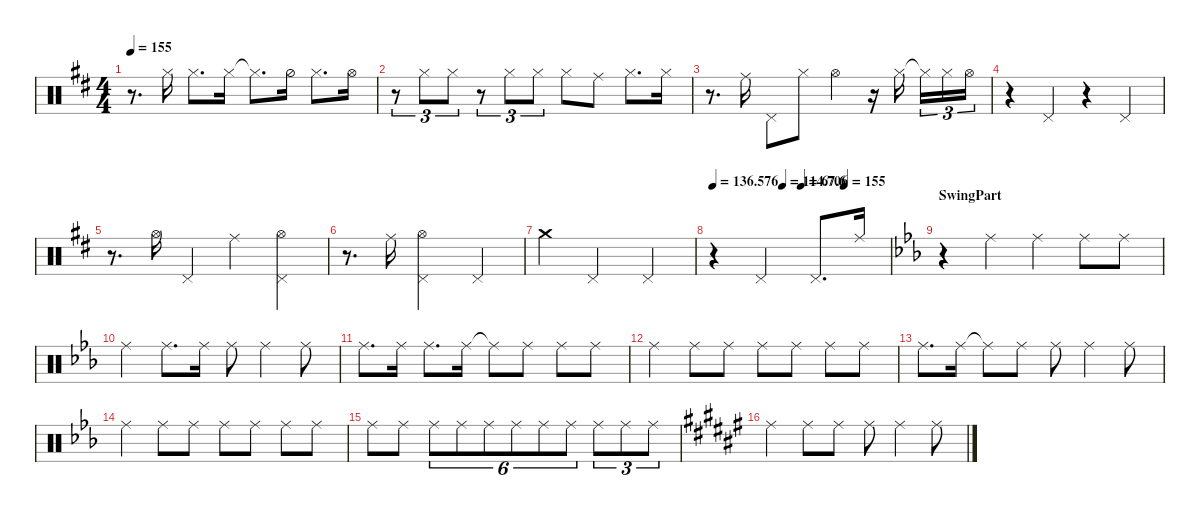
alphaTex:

\hideDynamics
\bracketExtendMode nobrackets
\singleTrackTrackNamePolicy hidden
\multiTrackTrackNamePolicy hidden
\otherSystemsTrackNameOrientation horizontal
\track ("Perc" "Drums") {instrument percussion}
\staff {score}
\articulation defaults
\ts (4 4)
\tempo 155
\clef neutral
\ks d
r.8{d dy mp beam Down} "Hi-Hat (closed)"{acc forcenatural}.16{dy p beam Down} "Hi-Hat (closed)"{acc forcenatural}.8{d dy mp beam Down} "Hi-Hat (closed)"{acc forcenatural}.16{dy p beam Down} "Hi-Hat (closed)"{t acc forcenatural}.8{d dy mp beam Down} "Hi-Hat (half)"{acc forcenatural}.16{dy p beam Down} "Hi-Hat (closed)"{acc forcenatural}.8{d beam Down} "Hi-Hat (open)"{acc forcenatural}.16{dy mp beam Down} |
r.8{tu (3 2) beam Down} "Hi-Hat (closed)"{acc forcenatural}.8{tu (3 2) beam Down} "Hi-Hat (closed)"{acc forcenatural}.8{tu (3 2) beam Down} r.8{tu (3 2) beam Down} "Hi-Hat (closed)"{acc forcenatural}.8{tu (3 2) beam Down} "Hi-Hat (closed)"{acc forcenatural}.8{tu (3 2) beam Down} "Hi-Hat (closed)"{acc forcenatural}.8{beam Down} "Ride (middle)"{acc forcenatural}.8{dy mf beam Down} "Hi-Hat (closed)"{acc forcenatural}.8{d dy mp beam Down} "Hi-Hat (closed)"{acc forcenatural}.16{dy p beam Down} |
r.8{d beam Down} "Ride (middle)"{acc forcenatural}.16{dy mf beam Down} "Pedal Hi-Hat (hit)"{acc forcenatural}.8{dy mp beam Down} "Hi-Hat (closed)"{acc forcenatural}.8{beam Down} "Hi-Hat (open)"{acc forcenatural}.4{dy mf beam Down} r.16{beam Down} "Hi-Hat (closed)"{acc forcenatural}.16{beam Down} "Hi-Hat (closed)"{t acc forcenatural}.16{tu (3 2) beam Down} "Hi-Hat (closed)"{acc forcenatural}.16{tu (3 2) beam Down} "Hi-Hat (open)"{acc forcenatural}.16{tu (3 2) beam Down} |
r.4{beam Down} "Pedal Hi-Hat (hit)"{acc forcenatural}.4{dy mp beam Up} r.4{beam Up} "Pedal Hi-Hat (hit)"{acc forcenatural}.4{beam Up} |
r.8{d beam Down} "Hi-Hat (open)"{acc forcenatural}.16{dy p beam Down} "Pedal Hi-Hat (hit)"{acc forcenatural}.4{dy mp beam Up} "Ride (middle)"{acc forcenatural}.4{dy p beam Down} ("Pedal Hi-Hat (hit)"{acc forcenatural} "Hi-Hat (open)"{acc forcenatural}).4{beam Down} |
r.8{d beam Down} "Ride (middle)"{acc forcenatural}.16{dy mf beam Down} ("Hi-Hat (open)"{acc forcenatural} "Pedal Hi-Hat (hit)"{acc forcenatural}).2{dy mp beam Down} "Pedal Hi-Hat (hit)"{acc forcenatural}.4{beam Up} |
"Crash medium (hit)"{acc forcenatural}.4{dy mf beam Down} "Pedal Hi-Hat (hit)"{acc forcenatural}.2{dy mp beam Up} "Pedal Hi-Hat (hit)"{acc forcenatural}.4{beam Up} |
\tempo
136.576
\tempo (114.706 0.39375)
\tempo (67.6 0.5)
\tempo (155 0.74375)
r.4{beam Down} "Pedal Hi-Hat (hit)"{acc forcenatural}.2{beam Up} "Pedal Hi-Hat (hit)"{acc forcenatural}.8{d beam Up} "Ride (middle)"{acc forcenatural}.16{dy mf beam Up} |
\section ("" "SwingPart")
\ks eb
r.4{beam Down} "Ride (middle)"{acc forcenatural}.4{dy pp beam Down} "Ride (middle)"{acc forcenatural}.4{beam Down} "Ride (middle)"{acc forcenatural}.8{beam Down} "Ride (middle)"{acc forcenatural}.8{beam Down} |
"Ride (middle)"{acc forcenatural}.4{beam Down} "Ride (middle)"{acc forcenatural}.8{d beam Down} "Ride (middle)"{acc forcenatural}.16{beam Down} "Ride (middle)"{acc forcenatural}.8{beam Down} "Ride (middle)"{acc forcenatural}.4{beam Down} "Ride (middle)"{acc forcenatural}.8{beam Down} |
"Ride (middle)"{acc forcenatural}.8{d beam Down} "Ride (middle)"{acc forcenatural}.16{beam Down} "Ride (middle)"{acc forcenatural}.8{d beam Down} "Ride (middle)"{acc forcenatural}.16{beam Down} "Ride (middle)"{t acc forcenatural}.8{beam Down} "Ride (middle)"{acc forcenatural}.8{beam Down} "Ride (middle)"{acc forcenatural}.8{beam Down} "Ride (middle)"{acc forcenatural}.8{beam Down} |
"Ride (middle)"{acc forcenatural}.4{beam Down} "Ride (middle)"{acc forcenatural}.8{beam Down} "Ride (middle)"{acc forcenatural}.8{beam Down} "Ride (middle)"{acc forcenatural}.8{beam Down} "Ride (middle)"{acc forcenatural}.8{beam Down} "Ride (middle)"{acc forcenatural}.8{beam Down} "Ride (middle)"{acc forcenatural}.8{beam Down} |
"Ride (middle)"{acc forcenatural}.8{d beam Down} "Ride (middle)"{acc forcenatural}.16{beam Down} "Ride (middle)"{t acc forcenatural}.8{beam Down} "Ride (middle)"{acc forcenatural}.8{beam Down} "Ride (middle)"{acc forcenatural}.8{beam Down} "Ride (middle)"{acc forcenatural}.4{beam Down} "Ride (middle)"{acc forcenatural}.8{beam Down} |
"Ride (middle)"{acc forcenatural}.4{beam Down} "Ride (middle)"{acc forcenatural}.8{beam Down} "Ride (middle)"{acc forcenatural}.8{beam Down} "Ride (middle)"{acc forcenatural}.8{beam Down} "Ride (middle)"{acc forcenatural}.8{beam Down} "Ride (middle)"{acc forcenatural}.8{beam Down} "Ride (middle)"{acc forcenatural}.8{beam Down} |
"Ride (middle)"{acc forcenatural}.8{beam Down} "Ride (middle)"{acc forcenatural}.8{beam Down} "Ride (middle)"{acc forcenatural}.8{tu (6 4) beam Down} "Ride (middle)"{acc forcenatural}.8{tu (6 4) beam Down} "Ride (middle)"{acc forcenatural}.8{tu (6 4) beam Down} "Ride (middle)"{acc forcenatural}.8{tu (6 4) beam Down} "Ride (middle)"{acc forcenatural}.8{tu (6 4) beam Down} "Ride (middle)"{acc forcenatural}.8{tu (6 4) beam Down} "Ride (middle)"{acc forcenatural}.8{tu (3 2) beam Down} "Ride (middle)"{acc forcenatural}.8{tu (3 2) beam Down} "Ride (middle)"{acc forcenatural}.8{tu (3 2) beam Down} |
\ks f# "Ride (middle)"{acc forcenatural}.4{beam Down} "Ride (middle)"{acc forcenatural}.8{beam Down} "Ride (middle)"{acc forcenatural}.8{beam Down} "Ride (middle)"{acc forcenatural}.8{beam Down} "Ride (middle)"{acc forcenatural}.4{beam Down} "Ride (middle)"{acc forcenatural}.8{beam Down}
